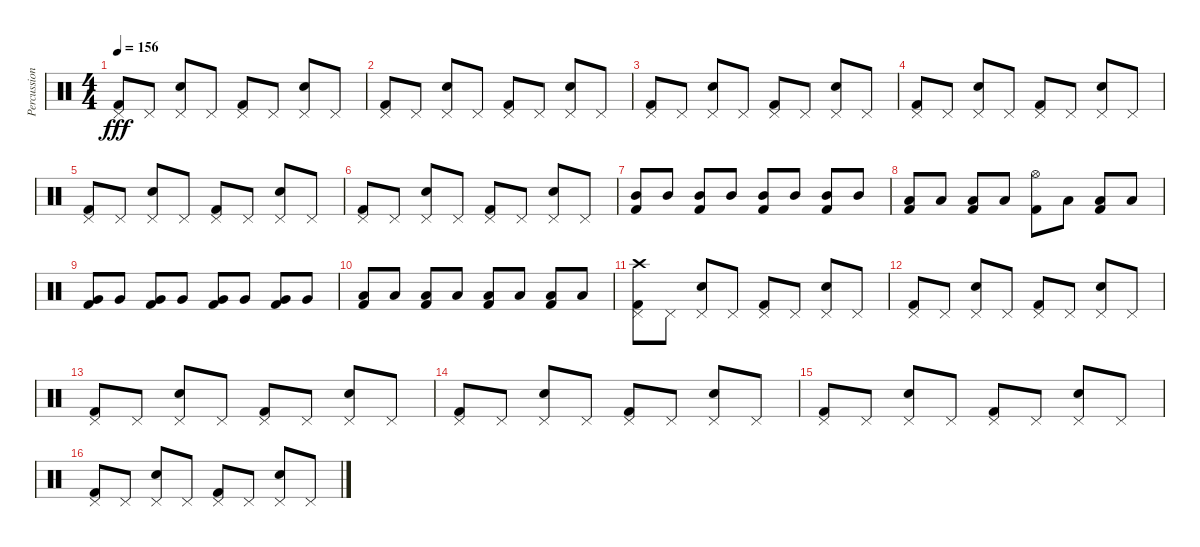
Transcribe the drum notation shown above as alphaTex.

\track ("Percussion" "Percussion") {instrument percussion}
\staff {score}
\articulation defaults
\ts (4 4)
\tempo 156
\clef neutral
\ks c
("Pedal Hi-Hat (hit)" "Kick (hit) 2").8{dy fff} "Pedal Hi-Hat (hit)".8 ("Pedal Hi-Hat (hit)" "Electric Snare (hit)").8 "Pedal Hi-Hat (hit)".8 ("Pedal Hi-Hat (hit)" "Kick (hit) 2").8 "Pedal Hi-Hat (hit)".8 ("Pedal Hi-Hat (hit)" "Electric Snare (hit)").8 "Pedal Hi-Hat (hit)".8 |
("Pedal Hi-Hat (hit)" "Kick (hit) 2").8 "Pedal Hi-Hat (hit)".8 ("Pedal Hi-Hat (hit)" "Electric Snare (hit)").8 "Pedal Hi-Hat (hit)".8 ("Pedal Hi-Hat (hit)" "Kick (hit) 2").8 "Pedal Hi-Hat (hit)".8 ("Pedal Hi-Hat (hit)" "Electric Snare (hit)").8 "Pedal Hi-Hat (hit)".8 |
("Pedal Hi-Hat (hit)" "Kick (hit) 2").8 "Pedal Hi-Hat (hit)".8 ("Pedal Hi-Hat (hit)" "Electric Snare (hit)").8 "Pedal Hi-Hat (hit)".8 ("Pedal Hi-Hat (hit)" "Kick (hit) 2").8 "Pedal Hi-Hat (hit)".8 ("Pedal Hi-Hat (hit)" "Electric Snare (hit)").8 "Pedal Hi-Hat (hit)".8 |
("Pedal Hi-Hat (hit)" "Kick (hit) 2").8 "Pedal Hi-Hat (hit)".8 ("Pedal Hi-Hat (hit)" "Electric Snare (hit)").8 "Pedal Hi-Hat (hit)".8 ("Pedal Hi-Hat (hit)" "Kick (hit) 2").8 "Pedal Hi-Hat (hit)".8 ("Pedal Hi-Hat (hit)" "Electric Snare (hit)").8 "Pedal Hi-Hat (hit)".8 |
("Pedal Hi-Hat (hit)" "Kick (hit) 2").8 "Pedal Hi-Hat (hit)".8 ("Pedal Hi-Hat (hit)" "Electric Snare (hit)").8 "Pedal Hi-Hat (hit)".8 ("Pedal Hi-Hat (hit)" "Kick (hit) 2").8 "Pedal Hi-Hat (hit)".8 ("Pedal Hi-Hat (hit)" "Electric Snare (hit)").8 "Pedal Hi-Hat (hit)".8 |
("Pedal Hi-Hat (hit)" "Kick (hit) 2").8 "Pedal Hi-Hat (hit)".8 ("Pedal Hi-Hat (hit)" "Electric Snare (hit)").8 "Pedal Hi-Hat (hit)".8 ("Pedal Hi-Hat (hit)" "Kick (hit) 2").8 "Pedal Hi-Hat (hit)".8 ("Pedal Hi-Hat (hit)" "Electric Snare (hit)").8 "Pedal Hi-Hat (hit)".8 |
("Mid Tom (hit)" "Kick (hit) 2").8 "Mid Tom (hit)".8 ("Mid Tom (hit)" "Kick (hit) 2").8 "Mid Tom (hit)".8 ("Mid Tom (hit)" "Kick (hit) 2").8 "Mid Tom (hit)".8 ("Mid Tom (hit)" "Kick (hit) 2").8 "Mid Tom (hit)".8 |
("Low Tom (hit)" "Kick (hit) 2").8 "Low Tom (hit)".8 ("Low Tom (hit)" "Kick (hit) 2").8 "Low Tom (hit)".8 ("Hi-Hat (open)" "Kick (hit) 2").8 "Low Tom (hit)".8 ("Low Tom (hit)" "Kick (hit) 2").8 "Low Tom (hit)".8 |
("Very Low Tom (hit)" "Kick (hit) 2").8 "Very Low Tom (hit)".8 ("Very Low Tom (hit)" "Kick (hit) 2").8 "Very Low Tom (hit)".8 ("Very Low Tom (hit)" "Kick (hit) 2").8 "Very Low Tom (hit)".8 ("Very Low Tom (hit)" "Kick (hit) 2").8 "Very Low Tom (hit)".8 |
("Low Floor Tom (hit)" "Kick (hit) 2").8 "Low Floor Tom (hit)".8 ("Low Floor Tom (hit)" "Kick (hit) 2").8 "Low Floor Tom (hit)".8 ("Low Floor Tom (hit)" "Kick (hit) 2").8 "Low Floor Tom (hit)".8 ("Low Floor Tom (hit)" "Kick (hit) 2").8 "Low Floor Tom (hit)".8 |
("Pedal Hi-Hat (hit)" "Kick (hit) 2" "Crash high (hit)").8 "Pedal Hi-Hat (hit)".8 ("Pedal Hi-Hat (hit)" "Electric Snare (hit)").8 "Pedal Hi-Hat (hit)".8 ("Pedal Hi-Hat (hit)" "Kick (hit) 2").8 "Pedal Hi-Hat (hit)".8 ("Pedal Hi-Hat (hit)" "Electric Snare (hit)").8 "Pedal Hi-Hat (hit)".8 |
("Pedal Hi-Hat (hit)" "Kick (hit) 2").8 "Pedal Hi-Hat (hit)".8 ("Pedal Hi-Hat (hit)" "Electric Snare (hit)").8 "Pedal Hi-Hat (hit)".8 ("Pedal Hi-Hat (hit)" "Kick (hit) 2").8 "Pedal Hi-Hat (hit)".8 ("Pedal Hi-Hat (hit)" "Electric Snare (hit)").8 "Pedal Hi-Hat (hit)".8 |
("Pedal Hi-Hat (hit)" "Kick (hit) 2").8 "Pedal Hi-Hat (hit)".8 ("Pedal Hi-Hat (hit)" "Electric Snare (hit)").8 "Pedal Hi-Hat (hit)".8 ("Pedal Hi-Hat (hit)" "Kick (hit) 2").8 "Pedal Hi-Hat (hit)".8 ("Pedal Hi-Hat (hit)" "Electric Snare (hit)").8 "Pedal Hi-Hat (hit)".8 |
("Pedal Hi-Hat (hit)" "Kick (hit) 2").8 "Pedal Hi-Hat (hit)".8 ("Pedal Hi-Hat (hit)" "Electric Snare (hit)").8 "Pedal Hi-Hat (hit)".8 ("Pedal Hi-Hat (hit)" "Kick (hit) 2").8 "Pedal Hi-Hat (hit)".8 ("Pedal Hi-Hat (hit)" "Electric Snare (hit)").8 "Pedal Hi-Hat (hit)".8 |
("Pedal Hi-Hat (hit)" "Kick (hit) 2").8 "Pedal Hi-Hat (hit)".8 ("Pedal Hi-Hat (hit)" "Electric Snare (hit)").8 "Pedal Hi-Hat (hit)".8 ("Pedal Hi-Hat (hit)" "Kick (hit) 2").8 "Pedal Hi-Hat (hit)".8 ("Pedal Hi-Hat (hit)" "Electric Snare (hit)").8 "Pedal Hi-Hat (hit)".8 |
("Pedal Hi-Hat (hit)" "Kick (hit) 2").8 "Pedal Hi-Hat (hit)".8 ("Pedal Hi-Hat (hit)" "Electric Snare (hit)").8 "Pedal Hi-Hat (hit)".8 ("Pedal Hi-Hat (hit)" "Kick (hit) 2").8 "Pedal Hi-Hat (hit)".8 ("Pedal Hi-Hat (hit)" "Electric Snare (hit)").8 "Pedal Hi-Hat (hit)".8
